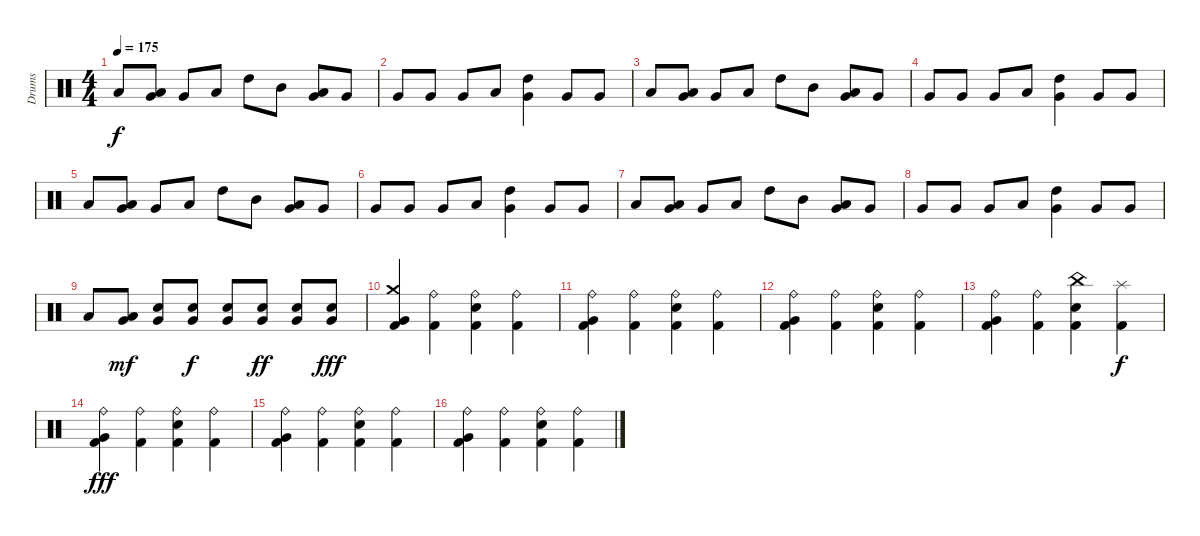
\track ("Drums" "Drums") {instrument percussion}
\staff {score}
\articulation defaults
\ts (4 4)
\tempo 175
\clef neutral
\ks c "Low Floor Tom (hit)".8{dy f}
("Low Tom (hit)" "Very Low Tom (hit)").8 "Very Low Tom (hit)".8 "Low Floor Tom (hit)".8 "High Tom (hit)".8 "Mid Tom (hit)".8 ("Low Tom (hit)" "Very Low Tom (hit)").8 "Very Low Tom (hit)".8 |
"Very Low Tom (hit)".8 "Very Low Tom (hit)".8 "Very Low Tom (hit)".8 "Low Floor Tom (hit)".8 ("High Tom (hit)" "Very Low Tom (hit)").4 "Very Low Tom (hit)".8 "Very Low Tom (hit)".8 |
"Low Floor Tom (hit)".8 ("Low Tom (hit)" "Very Low Tom (hit)").8 "Very Low Tom (hit)".8 "Low Floor Tom (hit)".8 "High Tom (hit)".8 "Mid Tom (hit)".8 ("Low Tom (hit)" "Very Low Tom (hit)").8 "Very Low Tom (hit)".8 |
"Very Low Tom (hit)".8 "Very Low Tom (hit)".8 "Very Low Tom (hit)".8 "Low Floor Tom (hit)".8 ("High Tom (hit)" "Very Low Tom (hit)").4 "Very Low Tom (hit)".8 "Very Low Tom (hit)".8 |
"Low Floor Tom (hit)".8 ("Low Tom (hit)" "Very Low Tom (hit)").8 "Very Low Tom (hit)".8 "Low Floor Tom (hit)".8 "High Tom (hit)".8 "Mid Tom (hit)".8 ("Low Tom (hit)" "Very Low Tom (hit)").8 "Very Low Tom (hit)".8 |
"Very Low Tom (hit)".8 "Very Low Tom (hit)".8 "Very Low Tom (hit)".8 "Low Floor Tom (hit)".8 ("High Tom (hit)" "Very Low Tom (hit)").4 "Very Low Tom (hit)".8 "Very Low Tom (hit)".8 |
"Low Floor Tom (hit)".8 ("Low Tom (hit)" "Very Low Tom (hit)").8 "Very Low Tom (hit)".8 "Low Floor Tom (hit)".8 "High Tom (hit)".8 "Mid Tom (hit)".8 ("Low Tom (hit)" "Very Low Tom (hit)").8 "Very Low Tom (hit)".8 |
"Very Low Tom (hit)".8 "Very Low Tom (hit)".8 "Very Low Tom (hit)".8 "Low Floor Tom (hit)".8 ("High Tom (hit)" "Very Low Tom (hit)").4 "Very Low Tom (hit)".8 "Very Low Tom (hit)".8 |
"Low Floor Tom (hit)".8 ("Low Tom (hit)" "Very Low Tom (hit)").8{dy mf} ("Electric Snare (hit)" "Very Low Tom (hit)").8 ("Electric Snare (hit)" "Very Low Tom (hit)").8{dy f} ("Electric Snare (hit)" "Very Low Tom (hit)").8 ("Electric Snare (hit)" "Very Low Tom (hit)").8{dy ff} ("Electric Snare (hit)" "Very Low Tom (hit)").8 ("Electric Snare (hit)" "Very Low Tom (hit)").8{dy fff} |
("Crash medium (hit)" "Very Low Tom (hit)" "Kick (hit) 2").4 ("Ride (bell)" "Kick (hit) 2").4 ("Ride (bell)" "Electric Snare (hit)" "Kick (hit) 2").4 ("Ride (bell)" "Kick (hit) 2").4 |
("Ride (bell)" "Very Low Tom (hit)" "Kick (hit) 2").4 ("Ride (bell)" "Kick (hit) 2").4 ("Ride (bell)" "Electric Snare (hit)" "Kick (hit) 2").4 ("Ride (bell)" "Kick (hit) 2").4 |
("Ride (bell)" "Very Low Tom (hit)" "Kick (hit) 2").4 ("Ride (bell)" "Kick (hit) 2").4 ("Ride (bell)" "Electric Snare (hit)" "Kick (hit) 2").4 ("Ride (bell)" "Kick (hit) 2").4 |
("Ride (bell)" "Very Low Tom (hit)" "Kick (hit) 2").4 ("Ride (bell)" "Kick (hit) 2").4 ("China (hit)" "Electric Snare (hit)" "Kick (hit) 2").4 ("Splash (hit)" "Kick (hit) 2").4{dy f} |
("Ride (bell)" "Very Low Tom (hit)" "Kick (hit) 2").4{dy fff} ("Ride (bell)" "Kick (hit) 2").4 ("Ride (bell)" "Electric Snare (hit)" "Kick (hit) 2").4 ("Ride (bell)" "Kick (hit) 2").4 |
("Ride (bell)" "Very Low Tom (hit)" "Kick (hit) 2").4 ("Ride (bell)" "Kick (hit) 2").4 ("Ride (bell)" "Electric Snare (hit)" "Kick (hit) 2").4 ("Ride (bell)" "Kick (hit) 2").4 |
("Ride (bell)" "Very Low Tom (hit)" "Kick (hit) 2").4 ("Ride (bell)" "Kick (hit) 2").4 ("Ride (bell)" "Electric Snare (hit)" "Kick (hit) 2").4 ("Ride (bell)" "Kick (hit) 2").4
